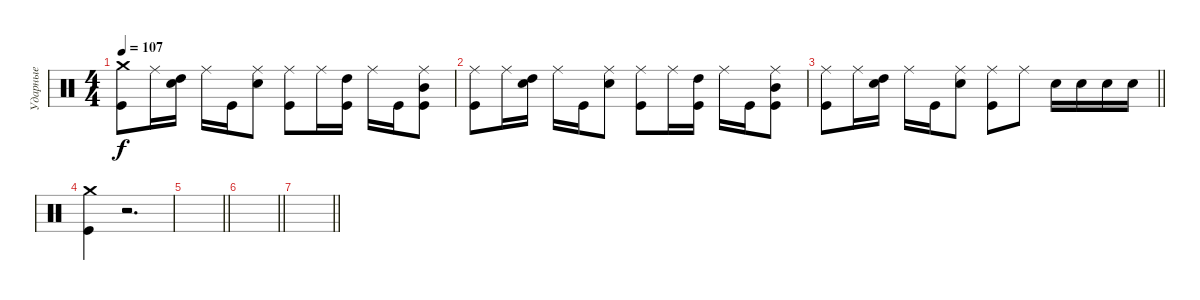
\track ("Ударные" "Ударные") {instrument percussion}
\staff {score}
\articulation defaults
\ts (4 4)
\tempo 107
\clef neutral
\ks c
("Kick (hit)" "Crash medium (hit)").8{dy f} "Ride (middle)".16 ("Snare (hit) 2" "High Tom (hit)").16 "Ride (middle)".16 "Kick (hit)".16 ("Snare (hit) 2" "Ride (middle)").8 ("Kick (hit)" "Ride (middle)").8 "Ride (middle)".16 ("Kick (hit)" "High Tom (hit)").16 "Ride (middle)".16 "Kick (hit)".16 ("Kick (hit)" "Mid Tom (hit)" "Ride (middle)").8 |
("Kick (hit)" "Ride (middle)").8 "Ride (middle)".16 ("Snare (hit) 2" "High Tom (hit)").16 "Ride (middle)".16 "Kick (hit)".16 ("Snare (hit) 2" "Ride (middle)").8 ("Kick (hit)" "Ride (middle)").8 "Ride (middle)".16 ("Kick (hit)" "High Tom (hit)").16 "Ride (middle)".16 "Kick (hit)".16 ("Kick (hit)" "Mid Tom (hit)" "Ride (middle)").8 |
\barLineRight lightlight
("Kick (hit)" "Ride (middle)").8 "Ride (middle)".16 ("Snare (hit) 2" "High Tom (hit)").16 "Ride (middle)".16 "Kick (hit)".16 ("Snare (hit) 2" "Ride (middle)").8 ("Kick (hit)" "Ride (middle)").8 "Ride (middle)".8 "Snare (hit) 2".16 "Snare (hit) 2".16 "Snare (hit) 2".16 "Snare (hit) 2".16 |
("Kick (hit)" "Crash medium (hit)").4 r.2{d} |
\barLineRight lightlight
|
\barLineRight lightlight
|
\barLineRight lightlight
